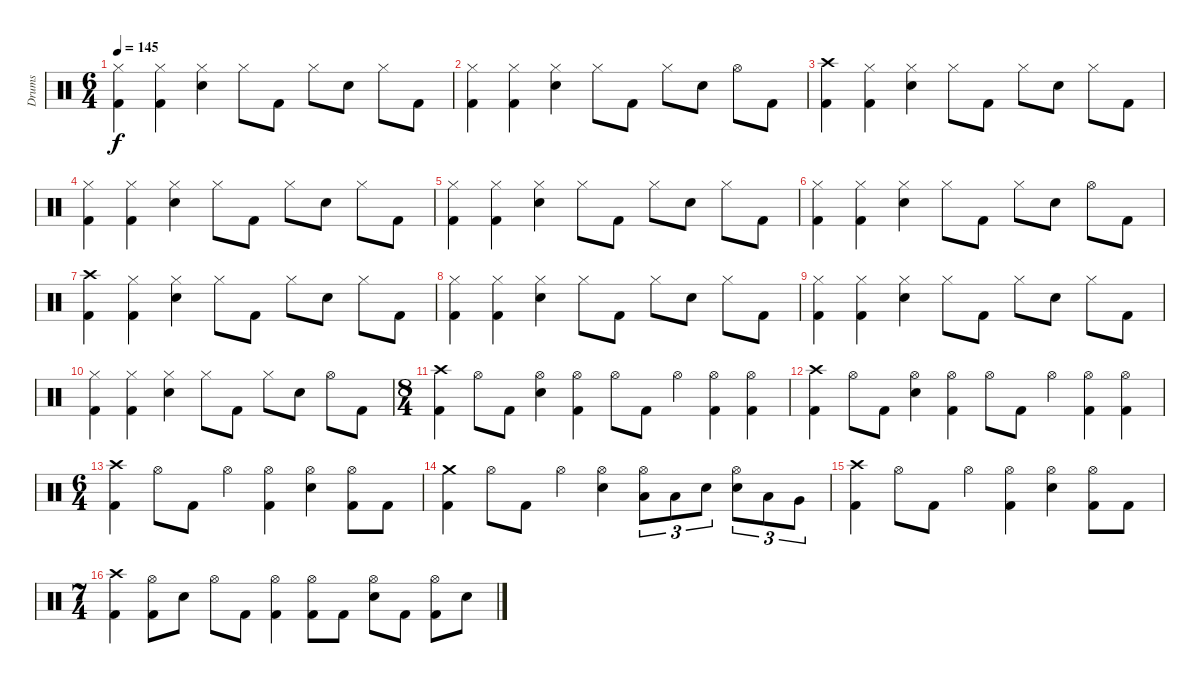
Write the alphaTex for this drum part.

\track ("Drums" "Drums") {instrument percussion}
\staff {score}
\articulation defaults
\ts (6 4)
\tempo 145
\clef neutral
\ks c
("Hi-Hat (closed)" "Kick (hit) 2").4{dy f} ("Hi-Hat (closed)" "Kick (hit) 2").4 ("Hi-Hat (closed)" "Snare (hit) 2").4 "Hi-Hat (closed)".8 "Kick (hit) 2".8 "Hi-Hat (closed)".8 "Snare (hit) 2".8 "Hi-Hat (closed)".8 "Kick (hit) 2".8 |
("Hi-Hat (closed)" "Kick (hit) 2").4 ("Hi-Hat (closed)" "Kick (hit) 2").4 ("Hi-Hat (closed)" "Snare (hit) 2").4 "Hi-Hat (closed)".8 "Kick (hit) 2".8 "Hi-Hat (closed)".8 "Snare (hit) 2".8 "Hi-Hat (open)".8 "Kick (hit) 2".8 |
("Crash high (hit)" "Kick (hit) 2").4 ("Hi-Hat (closed)" "Kick (hit) 2").4 ("Hi-Hat (closed)" "Snare (hit) 2").4 "Hi-Hat (closed)".8 "Kick (hit) 2".8 "Hi-Hat (closed)".8 "Snare (hit) 2".8 "Hi-Hat (closed)".8 "Kick (hit) 2".8 |
("Hi-Hat (closed)" "Kick (hit) 2").4 ("Hi-Hat (closed)" "Kick (hit) 2").4 ("Hi-Hat (closed)" "Snare (hit) 2").4 "Hi-Hat (closed)".8 "Kick (hit) 2".8 "Hi-Hat (closed)".8 "Snare (hit) 2".8 "Hi-Hat (closed)".8 "Kick (hit) 2".8 |
("Hi-Hat (closed)" "Kick (hit) 2").4 ("Hi-Hat (closed)" "Kick (hit) 2").4 ("Hi-Hat (closed)" "Snare (hit) 2").4 "Hi-Hat (closed)".8 "Kick (hit) 2".8 "Hi-Hat (closed)".8 "Snare (hit) 2".8 "Hi-Hat (closed)".8 "Kick (hit) 2".8 |
("Hi-Hat (closed)" "Kick (hit) 2").4 ("Hi-Hat (closed)" "Kick (hit) 2").4 ("Hi-Hat (closed)" "Snare (hit) 2").4 "Hi-Hat (closed)".8 "Kick (hit) 2".8 "Hi-Hat (closed)".8 "Snare (hit) 2".8 "Hi-Hat (open)".8 "Kick (hit) 2".8 |
("Crash high (hit)" "Kick (hit) 2").4 ("Hi-Hat (closed)" "Kick (hit) 2").4 ("Hi-Hat (closed)" "Snare (hit) 2").4 "Hi-Hat (closed)".8 "Kick (hit) 2".8 "Hi-Hat (closed)".8 "Snare (hit) 2".8 "Hi-Hat (closed)".8 "Kick (hit) 2".8 |
("Hi-Hat (closed)" "Kick (hit) 2").4 ("Hi-Hat (closed)" "Kick (hit) 2").4 ("Hi-Hat (closed)" "Snare (hit) 2").4 "Hi-Hat (closed)".8 "Kick (hit) 2".8 "Hi-Hat (closed)".8 "Snare (hit) 2".8 "Hi-Hat (closed)".8 "Kick (hit) 2".8 |
("Hi-Hat (closed)" "Kick (hit) 2").4 ("Hi-Hat (closed)" "Kick (hit) 2").4 ("Hi-Hat (closed)" "Snare (hit) 2").4 "Hi-Hat (closed)".8 "Kick (hit) 2".8 "Hi-Hat (closed)".8 "Snare (hit) 2".8 "Hi-Hat (closed)".8 "Kick (hit) 2".8 |
("Hi-Hat (closed)" "Kick (hit) 2").4 ("Hi-Hat (closed)" "Kick (hit) 2").4 ("Hi-Hat (closed)" "Snare (hit) 2").4 "Hi-Hat (closed)".8 "Kick (hit) 2".8 "Hi-Hat (closed)".8 "Snare (hit) 2".8 "Hi-Hat (open)".8 "Kick (hit) 2".8 |
\ts (8 4)
("Crash high (hit)" "Kick (hit) 2").4 "Hi-Hat (open)".8 "Kick (hit) 2".8 ("Hi-Hat (open)" "Snare (hit) 2").4 ("Hi-Hat (open)" "Kick (hit) 2").4 "Hi-Hat (open)".8 "Kick (hit) 2".8 "Hi-Hat (open)".4 ("Hi-Hat (open)" "Kick (hit) 2").4 ("Hi-Hat (open)" "Kick (hit) 2").4 |
("Crash high (hit)" "Kick (hit) 2").4 "Hi-Hat (open)".8 "Kick (hit) 2".8 ("Hi-Hat (open)" "Snare (hit) 2").4 ("Hi-Hat (open)" "Kick (hit) 2").4 "Hi-Hat (open)".8 "Kick (hit) 2".8 "Hi-Hat (open)".4 ("Hi-Hat (open)" "Kick (hit) 2").4 ("Hi-Hat (open)" "Kick (hit) 2").4 |
\ts (6 4)
("Crash high (hit)" "Kick (hit) 2").4 "Hi-Hat (open)".8 "Kick (hit) 2".8 "Hi-Hat (open)".4 ("Hi-Hat (open)" "Kick (hit) 2").4 ("Hi-Hat (open)" "Snare (hit) 2").4 ("Hi-Hat (open)" "Kick (hit) 2").8 "Kick (hit) 2".8 |
("Crash medium (hit)" "Kick (hit) 2").4 "Hi-Hat (open)".8 "Kick (hit) 2".8 "Hi-Hat (open)".4 ("Hi-Hat (open)" "Snare (hit) 2").4 ("Hi-Hat (open)" "Low Tom (hit)").8{tu (3 2)} "Low Tom (hit)".8{tu (3 2)} "Snare (hit) 2".8{tu (3 2)} ("Hi-Hat (open)" "Snare (hit) 2").8{tu (3 2)} "Low Tom (hit)".8{tu (3 2)} "Very Low Tom (hit)".8{tu (3 2)} |
("Crash high (hit)" "Kick (hit) 2").4 "Hi-Hat (open)".8 "Kick (hit) 2".8 "Hi-Hat (open)".4 ("Hi-Hat (open)" "Kick (hit) 2").4 ("Hi-Hat (open)" "Snare (hit) 2").4 ("Hi-Hat (open)" "Kick (hit) 2").8 "Kick (hit) 2".8 |
\ts (7 4)
("Crash high (hit)" "Kick (hit) 2").4 ("Hi-Hat (open)" "Kick (hit) 2").8 "Snare (hit) 2".8 "Hi-Hat (open)".8 "Kick (hit) 2".8 ("Hi-Hat (open)" "Kick (hit) 2").4 ("Hi-Hat (open)" "Kick (hit) 2").8 "Kick (hit) 2".8 ("Hi-Hat (open)" "Snare (hit) 2").8 "Kick (hit) 2".8 ("Hi-Hat (open)" "Kick (hit) 2").8 "Snare (hit) 2".8
